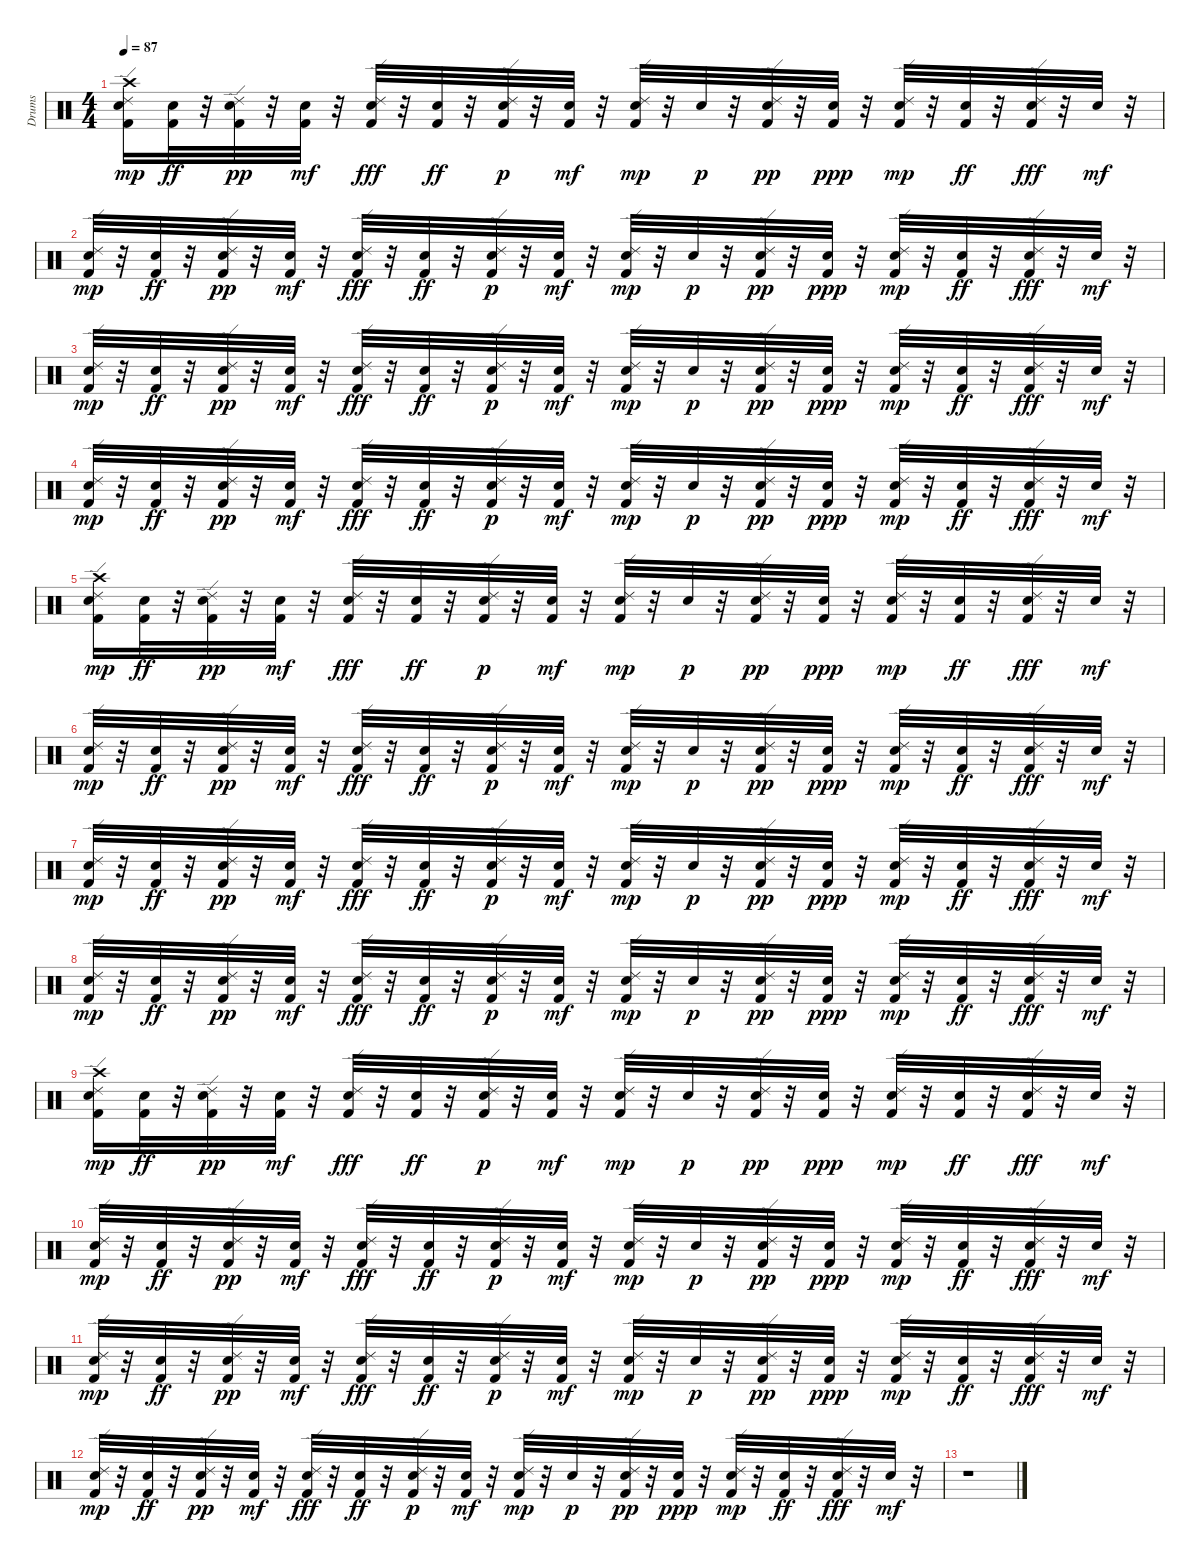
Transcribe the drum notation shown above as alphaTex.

\track ("Drums" "Drums") {instrument percussion}
\staff {score}
\articulation defaults
\ts (4 4)
\tempo 87
\clef neutral
\ks c
("Crash high (hit)" "Ride (edge) 2" "Kick (hit) 2" "Snare (hit) 2").16{dy mp} ("Snare (hit) 2" "Kick (hit) 2").32{dy ff} r.32 ("Ride (edge) 2" "Kick (hit) 2" "Snare (hit) 2").32{dy pp} r.32 ("Snare (hit) 2" "Kick (hit) 2").32{dy mf} r.32 ("Ride (edge) 2" "Kick (hit) 2" "Snare (hit) 2").32{dy fff} r.32 ("Kick (hit) 2" "Snare (hit) 2").32{dy ff} r.32 ("Ride (edge) 2" "Kick (hit) 2" "Snare (hit) 2").32{dy p} r.32 ("Kick (hit) 2" "Snare (hit) 2").32{dy mf} r.32 ("Ride (edge) 2" "Kick (hit) 2" "Snare (hit) 2").32{dy mp} r.32 "Snare (hit) 2".32{dy p} r.32 ("Ride (edge) 2" "Kick (hit) 2" "Snare (hit) 2").32{dy pp} r.32 ("Snare (hit) 2" "Kick (hit) 2").32{dy ppp} r.32 ("Ride (edge) 2" "Snare (hit) 2" "Kick (hit) 2").32{dy mp} r.32 ("Kick (hit) 2" "Snare (hit) 2").32{dy ff} r.32 ("Ride (edge) 2" "Kick (hit) 2" "Snare (hit) 2").32{dy fff} r.32 "Snare (hit) 2".32{dy mf} r.32 |
("Ride (edge) 2" "Kick (hit) 2" "Snare (hit) 2").32{dy mp} r.32 ("Snare (hit) 2" "Kick (hit) 2").32{dy ff} r.32 ("Ride (edge) 2" "Kick (hit) 2" "Snare (hit) 2").32{dy pp} r.32 ("Snare (hit) 2" "Kick (hit) 2").32{dy mf} r.32 ("Ride (edge) 2" "Kick (hit) 2" "Snare (hit) 2").32{dy fff} r.32 ("Kick (hit) 2" "Snare (hit) 2").32{dy ff} r.32 ("Ride (edge) 2" "Kick (hit) 2" "Snare (hit) 2").32{dy p} r.32 ("Kick (hit) 2" "Snare (hit) 2").32{dy mf} r.32 ("Ride (edge) 2" "Kick (hit) 2" "Snare (hit) 2").32{dy mp} r.32 "Snare (hit) 2".32{dy p} r.32 ("Ride (edge) 2" "Kick (hit) 2" "Snare (hit) 2").32{dy pp} r.32 ("Snare (hit) 2" "Kick (hit) 2").32{dy ppp} r.32 ("Ride (edge) 2" "Snare (hit) 2" "Kick (hit) 2").32{dy mp} r.32 ("Kick (hit) 2" "Snare (hit) 2").32{dy ff} r.32 ("Ride (edge) 2" "Kick (hit) 2" "Snare (hit) 2").32{dy fff} r.32 "Snare (hit) 2".32{dy mf} r.32 |
("Ride (edge) 2" "Kick (hit) 2" "Snare (hit) 2").32{dy mp} r.32 ("Snare (hit) 2" "Kick (hit) 2").32{dy ff} r.32 ("Ride (edge) 2" "Kick (hit) 2" "Snare (hit) 2").32{dy pp} r.32 ("Snare (hit) 2" "Kick (hit) 2").32{dy mf} r.32 ("Ride (edge) 2" "Kick (hit) 2" "Snare (hit) 2").32{dy fff} r.32 ("Kick (hit) 2" "Snare (hit) 2").32{dy ff} r.32 ("Ride (edge) 2" "Kick (hit) 2" "Snare (hit) 2").32{dy p} r.32 ("Kick (hit) 2" "Snare (hit) 2").32{dy mf} r.32 ("Ride (edge) 2" "Kick (hit) 2" "Snare (hit) 2").32{dy mp} r.32 "Snare (hit) 2".32{dy p} r.32 ("Ride (edge) 2" "Kick (hit) 2" "Snare (hit) 2").32{dy pp} r.32 ("Snare (hit) 2" "Kick (hit) 2").32{dy ppp} r.32 ("Ride (edge) 2" "Snare (hit) 2" "Kick (hit) 2").32{dy mp} r.32 ("Kick (hit) 2" "Snare (hit) 2").32{dy ff} r.32 ("Ride (edge) 2" "Kick (hit) 2" "Snare (hit) 2").32{dy fff} r.32 "Snare (hit) 2".32{dy mf} r.32 |
("Ride (edge) 2" "Kick (hit) 2" "Snare (hit) 2").32{dy mp} r.32 ("Snare (hit) 2" "Kick (hit) 2").32{dy ff} r.32 ("Ride (edge) 2" "Kick (hit) 2" "Snare (hit) 2").32{dy pp} r.32 ("Snare (hit) 2" "Kick (hit) 2").32{dy mf} r.32 ("Ride (edge) 2" "Kick (hit) 2" "Snare (hit) 2").32{dy fff} r.32 ("Kick (hit) 2" "Snare (hit) 2").32{dy ff} r.32 ("Ride (edge) 2" "Kick (hit) 2" "Snare (hit) 2").32{dy p} r.32 ("Kick (hit) 2" "Snare (hit) 2").32{dy mf} r.32 ("Ride (edge) 2" "Kick (hit) 2" "Snare (hit) 2").32{dy mp} r.32 "Snare (hit) 2".32{dy p} r.32 ("Ride (edge) 2" "Kick (hit) 2" "Snare (hit) 2").32{dy pp} r.32 ("Snare (hit) 2" "Kick (hit) 2").32{dy ppp} r.32 ("Ride (edge) 2" "Snare (hit) 2" "Kick (hit) 2").32{dy mp} r.32 ("Kick (hit) 2" "Snare (hit) 2").32{dy ff} r.32 ("Ride (edge) 2" "Kick (hit) 2" "Snare (hit) 2").32{dy fff} r.32 "Snare (hit) 2".32{dy mf} r.32 |
("Crash high (hit)" "Ride (edge) 2" "Kick (hit) 2" "Snare (hit) 2").16{dy mp} ("Snare (hit) 2" "Kick (hit) 2").32{dy ff} r.32 ("Ride (edge) 2" "Kick (hit) 2" "Snare (hit) 2").32{dy pp} r.32 ("Snare (hit) 2" "Kick (hit) 2").32{dy mf} r.32 ("Ride (edge) 2" "Kick (hit) 2" "Snare (hit) 2").32{dy fff} r.32 ("Kick (hit) 2" "Snare (hit) 2").32{dy ff} r.32 ("Ride (edge) 2" "Kick (hit) 2" "Snare (hit) 2").32{dy p} r.32 ("Kick (hit) 2" "Snare (hit) 2").32{dy mf} r.32 ("Ride (edge) 2" "Kick (hit) 2" "Snare (hit) 2").32{dy mp} r.32 "Snare (hit) 2".32{dy p} r.32 ("Ride (edge) 2" "Kick (hit) 2" "Snare (hit) 2").32{dy pp} r.32 ("Snare (hit) 2" "Kick (hit) 2").32{dy ppp} r.32 ("Ride (edge) 2" "Snare (hit) 2" "Kick (hit) 2").32{dy mp} r.32 ("Kick (hit) 2" "Snare (hit) 2").32{dy ff} r.32 ("Ride (edge) 2" "Kick (hit) 2" "Snare (hit) 2").32{dy fff} r.32 "Snare (hit) 2".32{dy mf} r.32 |
("Ride (edge) 2" "Kick (hit) 2" "Snare (hit) 2").32{dy mp} r.32 ("Snare (hit) 2" "Kick (hit) 2").32{dy ff} r.32 ("Ride (edge) 2" "Kick (hit) 2" "Snare (hit) 2").32{dy pp} r.32 ("Snare (hit) 2" "Kick (hit) 2").32{dy mf} r.32 ("Ride (edge) 2" "Kick (hit) 2" "Snare (hit) 2").32{dy fff} r.32 ("Kick (hit) 2" "Snare (hit) 2").32{dy ff} r.32 ("Ride (edge) 2" "Kick (hit) 2" "Snare (hit) 2").32{dy p} r.32 ("Kick (hit) 2" "Snare (hit) 2").32{dy mf} r.32 ("Ride (edge) 2" "Kick (hit) 2" "Snare (hit) 2").32{dy mp} r.32 "Snare (hit) 2".32{dy p} r.32 ("Ride (edge) 2" "Kick (hit) 2" "Snare (hit) 2").32{dy pp} r.32 ("Snare (hit) 2" "Kick (hit) 2").32{dy ppp} r.32 ("Ride (edge) 2" "Snare (hit) 2" "Kick (hit) 2").32{dy mp} r.32 ("Kick (hit) 2" "Snare (hit) 2").32{dy ff} r.32 ("Ride (edge) 2" "Kick (hit) 2" "Snare (hit) 2").32{dy fff} r.32 "Snare (hit) 2".32{dy mf} r.32 |
("Ride (edge) 2" "Kick (hit) 2" "Snare (hit) 2").32{dy mp} r.32 ("Snare (hit) 2" "Kick (hit) 2").32{dy ff} r.32 ("Ride (edge) 2" "Kick (hit) 2" "Snare (hit) 2").32{dy pp} r.32 ("Snare (hit) 2" "Kick (hit) 2").32{dy mf} r.32 ("Ride (edge) 2" "Kick (hit) 2" "Snare (hit) 2").32{dy fff} r.32 ("Kick (hit) 2" "Snare (hit) 2").32{dy ff} r.32 ("Ride (edge) 2" "Kick (hit) 2" "Snare (hit) 2").32{dy p} r.32 ("Kick (hit) 2" "Snare (hit) 2").32{dy mf} r.32 ("Ride (edge) 2" "Kick (hit) 2" "Snare (hit) 2").32{dy mp} r.32 "Snare (hit) 2".32{dy p} r.32 ("Ride (edge) 2" "Kick (hit) 2" "Snare (hit) 2").32{dy pp} r.32 ("Snare (hit) 2" "Kick (hit) 2").32{dy ppp} r.32 ("Ride (edge) 2" "Snare (hit) 2" "Kick (hit) 2").32{dy mp} r.32 ("Kick (hit) 2" "Snare (hit) 2").32{dy ff} r.32 ("Ride (edge) 2" "Kick (hit) 2" "Snare (hit) 2").32{dy fff} r.32 "Snare (hit) 2".32{dy mf} r.32 |
("Ride (edge) 2" "Kick (hit) 2" "Snare (hit) 2").32{dy mp} r.32 ("Snare (hit) 2" "Kick (hit) 2").32{dy ff} r.32 ("Ride (edge) 2" "Kick (hit) 2" "Snare (hit) 2").32{dy pp} r.32 ("Snare (hit) 2" "Kick (hit) 2").32{dy mf} r.32 ("Ride (edge) 2" "Kick (hit) 2" "Snare (hit) 2").32{dy fff} r.32 ("Kick (hit) 2" "Snare (hit) 2").32{dy ff} r.32 ("Ride (edge) 2" "Kick (hit) 2" "Snare (hit) 2").32{dy p} r.32 ("Kick (hit) 2" "Snare (hit) 2").32{dy mf} r.32 ("Ride (edge) 2" "Kick (hit) 2" "Snare (hit) 2").32{dy mp} r.32 "Snare (hit) 2".32{dy p} r.32 ("Ride (edge) 2" "Kick (hit) 2" "Snare (hit) 2").32{dy pp} r.32 ("Snare (hit) 2" "Kick (hit) 2").32{dy ppp} r.32 ("Ride (edge) 2" "Snare (hit) 2" "Kick (hit) 2").32{dy mp} r.32 ("Kick (hit) 2" "Snare (hit) 2").32{dy ff} r.32 ("Ride (edge) 2" "Kick (hit) 2" "Snare (hit) 2").32{dy fff} r.32 "Snare (hit) 2".32{dy mf} r.32 |
("Crash high (hit)" "Ride (edge) 2" "Kick (hit) 2" "Snare (hit) 2").16{dy mp} ("Snare (hit) 2" "Kick (hit) 2").32{dy ff} r.32 ("Ride (edge) 2" "Kick (hit) 2" "Snare (hit) 2").32{dy pp} r.32 ("Snare (hit) 2" "Kick (hit) 2").32{dy mf} r.32 ("Ride (edge) 2" "Kick (hit) 2" "Snare (hit) 2").32{dy fff} r.32 ("Kick (hit) 2" "Snare (hit) 2").32{dy ff} r.32 ("Ride (edge) 2" "Kick (hit) 2" "Snare (hit) 2").32{dy p} r.32 ("Kick (hit) 2" "Snare (hit) 2").32{dy mf} r.32 ("Ride (edge) 2" "Kick (hit) 2" "Snare (hit) 2").32{dy mp} r.32 "Snare (hit) 2".32{dy p} r.32 ("Ride (edge) 2" "Kick (hit) 2" "Snare (hit) 2").32{dy pp} r.32 ("Snare (hit) 2" "Kick (hit) 2").32{dy ppp} r.32 ("Ride (edge) 2" "Snare (hit) 2" "Kick (hit) 2").32{dy mp} r.32 ("Kick (hit) 2" "Snare (hit) 2").32{dy ff} r.32 ("Ride (edge) 2" "Kick (hit) 2" "Snare (hit) 2").32{dy fff} r.32 "Snare (hit) 2".32{dy mf} r.32 |
("Ride (edge) 2" "Kick (hit) 2" "Snare (hit) 2").32{dy mp} r.32 ("Snare (hit) 2" "Kick (hit) 2").32{dy ff} r.32 ("Ride (edge) 2" "Kick (hit) 2" "Snare (hit) 2").32{dy pp} r.32 ("Snare (hit) 2" "Kick (hit) 2").32{dy mf} r.32 ("Ride (edge) 2" "Kick (hit) 2" "Snare (hit) 2").32{dy fff} r.32 ("Kick (hit) 2" "Snare (hit) 2").32{dy ff} r.32 ("Ride (edge) 2" "Kick (hit) 2" "Snare (hit) 2").32{dy p} r.32 ("Kick (hit) 2" "Snare (hit) 2").32{dy mf} r.32 ("Ride (edge) 2" "Kick (hit) 2" "Snare (hit) 2").32{dy mp} r.32 "Snare (hit) 2".32{dy p} r.32 ("Ride (edge) 2" "Kick (hit) 2" "Snare (hit) 2").32{dy pp} r.32 ("Snare (hit) 2" "Kick (hit) 2").32{dy ppp} r.32 ("Ride (edge) 2" "Snare (hit) 2" "Kick (hit) 2").32{dy mp} r.32 ("Kick (hit) 2" "Snare (hit) 2").32{dy ff} r.32 ("Ride (edge) 2" "Kick (hit) 2" "Snare (hit) 2").32{dy fff} r.32 "Snare (hit) 2".32{dy mf} r.32 |
("Ride (edge) 2" "Kick (hit) 2" "Snare (hit) 2").32{dy mp} r.32 ("Snare (hit) 2" "Kick (hit) 2").32{dy ff} r.32 ("Ride (edge) 2" "Kick (hit) 2" "Snare (hit) 2").32{dy pp} r.32 ("Snare (hit) 2" "Kick (hit) 2").32{dy mf} r.32 ("Ride (edge) 2" "Kick (hit) 2" "Snare (hit) 2").32{dy fff} r.32 ("Kick (hit) 2" "Snare (hit) 2").32{dy ff} r.32 ("Ride (edge) 2" "Kick (hit) 2" "Snare (hit) 2").32{dy p} r.32 ("Kick (hit) 2" "Snare (hit) 2").32{dy mf} r.32 ("Ride (edge) 2" "Kick (hit) 2" "Snare (hit) 2").32{dy mp} r.32 "Snare (hit) 2".32{dy p} r.32 ("Ride (edge) 2" "Kick (hit) 2" "Snare (hit) 2").32{dy pp} r.32 ("Snare (hit) 2" "Kick (hit) 2").32{dy ppp} r.32 ("Ride (edge) 2" "Snare (hit) 2" "Kick (hit) 2").32{dy mp} r.32 ("Kick (hit) 2" "Snare (hit) 2").32{dy ff} r.32 ("Ride (edge) 2" "Kick (hit) 2" "Snare (hit) 2").32{dy fff} r.32 "Snare (hit) 2".32{dy mf} r.32 |
("Ride (edge) 2" "Kick (hit) 2" "Snare (hit) 2").32{dy mp} r.32 ("Snare (hit) 2" "Kick (hit) 2").32{dy ff} r.32 ("Ride (edge) 2" "Kick (hit) 2" "Snare (hit) 2").32{dy pp} r.32 ("Snare (hit) 2" "Kick (hit) 2").32{dy mf} r.32 ("Ride (edge) 2" "Kick (hit) 2" "Snare (hit) 2").32{dy fff} r.32 ("Kick (hit) 2" "Snare (hit) 2").32{dy ff} r.32 ("Ride (edge) 2" "Kick (hit) 2" "Snare (hit) 2").32{dy p} r.32 ("Kick (hit) 2" "Snare (hit) 2").32{dy mf} r.32 ("Ride (edge) 2" "Kick (hit) 2" "Snare (hit) 2").32{dy mp} r.32 "Snare (hit) 2".32{dy p} r.32 ("Ride (edge) 2" "Kick (hit) 2" "Snare (hit) 2").32{dy pp} r.32 ("Snare (hit) 2" "Kick (hit) 2").32{dy ppp} r.32 ("Ride (edge) 2" "Snare (hit) 2" "Kick (hit) 2").32{dy mp} r.32 ("Kick (hit) 2" "Snare (hit) 2").32{dy ff} r.32 ("Ride (edge) 2" "Kick (hit) 2" "Snare (hit) 2").32{dy fff} r.32 "Snare (hit) 2".32{dy mf} r.32 |
r.1
